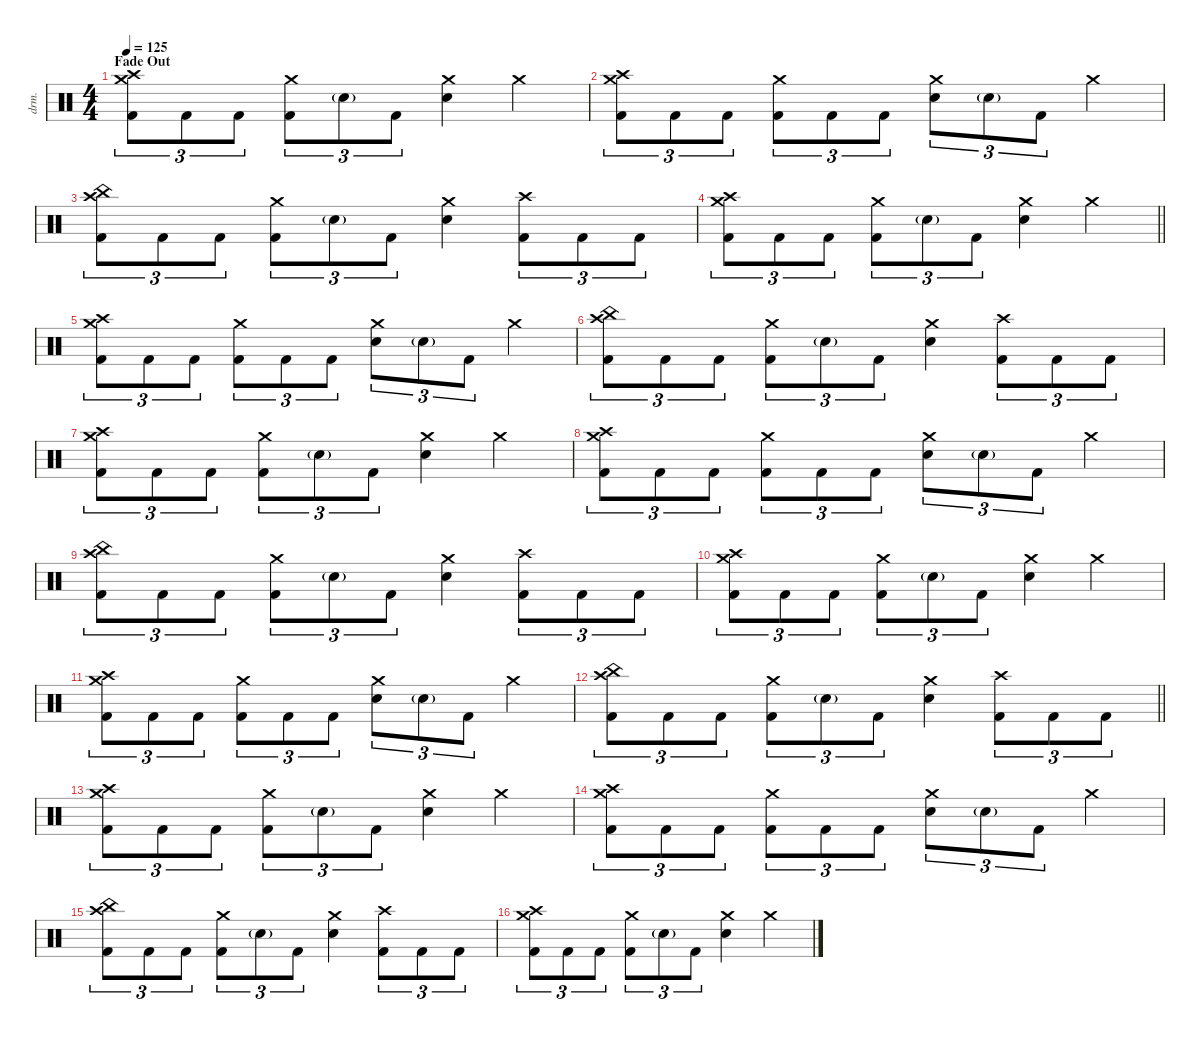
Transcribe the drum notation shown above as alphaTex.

\defaultSystemsLayout 4
\hideDynamics
\bracketExtendMode nobrackets
\track ("DRUMS (Thomas Haake)" "drm.") {instrument percussion}
\staff {score}
\articulation defaults
\ts (4 4)
\section ("" "Fade Out")
\tempo 125
\clef neutral
\ks c
("Crash medium (hit)" "Crash high (hit)" "Kick (hit) 2").8{tu (3 2) dy mf} "Kick (hit) 2".8{tu (3 2) dy f} "Kick (hit) 2".8{tu (3 2)} ("Crash medium (hit)" "Kick (hit) 2").8{tu (3 2) dy mf} "Snare (hit) 2"{g}.8{tu (3 2) dy p} "Kick (hit) 2".8{tu (3 2) dy f} ("Crash medium (hit)" "Snare (hit) 2").4{dy mf} "Crash medium (hit)".4 |
("Crash medium (hit)" "Crash high (hit)" "Kick (hit) 2").8{tu (3 2)} "Kick (hit) 2".8{tu (3 2) dy f} "Kick (hit) 2".8{tu (3 2)} ("Crash medium (hit)" "Kick (hit) 2").8{tu (3 2) dy mf} "Kick (hit) 2".8{tu (3 2) dy f} "Kick (hit) 2".8{tu (3 2)} ("Crash medium (hit)" "Snare (hit) 2").8{tu (3 2) dy mf} "Snare (hit) 2"{g}.8{tu (3 2) dy mp} "Kick (hit) 2".8{tu (3 2) dy f} "Crash medium (hit)".4{dy mf} |
("China (hit)" "Crash high (hit)" "Kick (hit) 2").8{tu (3 2)} "Kick (hit) 2".8{tu (3 2) dy f} "Kick (hit) 2".8{tu (3 2)} ("Crash medium (hit)" "Kick (hit) 2").8{tu (3 2) dy mf} "Snare (hit) 2"{g}.8{tu (3 2) dy p} "Kick (hit) 2".8{tu (3 2) dy f} ("Crash medium (hit)" "Snare (hit) 2").4{dy mf} ("Crash high (hit)" "Kick (hit) 2").8{tu (3 2) dy f} "Kick (hit) 2".8{tu (3 2)} "Kick (hit) 2".8{tu (3 2)} |
\barLineRight lightlight
("Crash medium (hit)" "Crash high (hit)" "Kick (hit) 2").8{tu (3 2) dy mf} "Kick (hit) 2".8{tu (3 2) dy f} "Kick (hit) 2".8{tu (3 2)} ("Crash medium (hit)" "Kick (hit) 2").8{tu (3 2) dy mf} "Snare (hit) 2"{g}.8{tu (3 2) dy p} "Kick (hit) 2".8{tu (3 2) dy f} ("Crash medium (hit)" "Snare (hit) 2").4{dy mf} "Crash medium (hit)".4 |
("Crash medium (hit)" "Crash high (hit)" "Kick (hit) 2").8{tu (3 2)} "Kick (hit) 2".8{tu (3 2) dy f} "Kick (hit) 2".8{tu (3 2)} ("Crash medium (hit)" "Kick (hit) 2").8{tu (3 2) dy mf} "Kick (hit) 2".8{tu (3 2) dy f} "Kick (hit) 2".8{tu (3 2)} ("Crash medium (hit)" "Snare (hit) 2").8{tu (3 2) dy mf} "Snare (hit) 2"{g}.8{tu (3 2) dy mp} "Kick (hit) 2".8{tu (3 2) dy f} "Crash medium (hit)".4{dy mf} |
("China (hit)" "Crash high (hit)" "Kick (hit) 2").8{tu (3 2)} "Kick (hit) 2".8{tu (3 2) dy f} "Kick (hit) 2".8{tu (3 2)} ("Crash medium (hit)" "Kick (hit) 2").8{tu (3 2) dy mf} "Snare (hit) 2"{g}.8{tu (3 2) dy p} "Kick (hit) 2".8{tu (3 2) dy f} ("Crash medium (hit)" "Snare (hit) 2").4{dy mf} ("Crash high (hit)" "Kick (hit) 2").8{tu (3 2) dy f} "Kick (hit) 2".8{tu (3 2)} "Kick (hit) 2".8{tu (3 2)} |
("Crash medium (hit)" "Crash high (hit)" "Kick (hit) 2").8{tu (3 2) dy mf} "Kick (hit) 2".8{tu (3 2) dy f} "Kick (hit) 2".8{tu (3 2)} ("Crash medium (hit)" "Kick (hit) 2").8{tu (3 2) dy mf} "Snare (hit) 2"{g}.8{tu (3 2) dy p} "Kick (hit) 2".8{tu (3 2) dy f} ("Crash medium (hit)" "Snare (hit) 2").4{dy mf} "Crash medium (hit)".4 |
("Crash medium (hit)" "Crash high (hit)" "Kick (hit) 2").8{tu (3 2)} "Kick (hit) 2".8{tu (3 2) dy f} "Kick (hit) 2".8{tu (3 2)} ("Crash medium (hit)" "Kick (hit) 2").8{tu (3 2) dy mf} "Kick (hit) 2".8{tu (3 2) dy f} "Kick (hit) 2".8{tu (3 2)} ("Crash medium (hit)" "Snare (hit) 2").8{tu (3 2) dy mf} "Snare (hit) 2"{g}.8{tu (3 2) dy mp} "Kick (hit) 2".8{tu (3 2) dy f} "Crash medium (hit)".4{dy mf} |
("China (hit)" "Crash high (hit)" "Kick (hit) 2").8{tu (3 2)} "Kick (hit) 2".8{tu (3 2) dy f} "Kick (hit) 2".8{tu (3 2)} ("Crash medium (hit)" "Kick (hit) 2").8{tu (3 2) dy mf} "Snare (hit) 2"{g}.8{tu (3 2) dy p} "Kick (hit) 2".8{tu (3 2) dy f} ("Crash medium (hit)" "Snare (hit) 2").4{dy mf} ("Crash high (hit)" "Kick (hit) 2").8{tu (3 2) dy f} "Kick (hit) 2".8{tu (3 2)} "Kick (hit) 2".8{tu (3 2)} |
("Crash medium (hit)" "Crash high (hit)" "Kick (hit) 2").8{tu (3 2) dy mf} "Kick (hit) 2".8{tu (3 2) dy f} "Kick (hit) 2".8{tu (3 2)} ("Crash medium (hit)" "Kick (hit) 2").8{tu (3 2) dy mf} "Snare (hit) 2"{g}.8{tu (3 2) dy p} "Kick (hit) 2".8{tu (3 2) dy f} ("Crash medium (hit)" "Snare (hit) 2").4{dy mf} "Crash medium (hit)".4 |
("Crash medium (hit)" "Crash high (hit)" "Kick (hit) 2").8{tu (3 2)} "Kick (hit) 2".8{tu (3 2) dy f} "Kick (hit) 2".8{tu (3 2)} ("Crash medium (hit)" "Kick (hit) 2").8{tu (3 2) dy mf} "Kick (hit) 2".8{tu (3 2) dy f} "Kick (hit) 2".8{tu (3 2)} ("Crash medium (hit)" "Snare (hit) 2").8{tu (3 2) dy mf} "Snare (hit) 2"{g}.8{tu (3 2) dy mp} "Kick (hit) 2".8{tu (3 2) dy f} "Crash medium (hit)".4{dy mf} |
\barLineRight lightlight
("China (hit)" "Crash high (hit)" "Kick (hit) 2").8{tu (3 2)} "Kick (hit) 2".8{tu (3 2) dy f} "Kick (hit) 2".8{tu (3 2)} ("Crash medium (hit)" "Kick (hit) 2").8{tu (3 2) dy mf} "Snare (hit) 2"{g}.8{tu (3 2) dy p} "Kick (hit) 2".8{tu (3 2) dy f} ("Crash medium (hit)" "Snare (hit) 2").4{dy mf} ("Crash high (hit)" "Kick (hit) 2").8{tu (3 2) dy f} "Kick (hit) 2".8{tu (3 2)} "Kick (hit) 2".8{tu (3 2)} |
("Crash medium (hit)" "Crash high (hit)" "Kick (hit) 2").8{tu (3 2) dy mf} "Kick (hit) 2".8{tu (3 2) dy f} "Kick (hit) 2".8{tu (3 2)} ("Crash medium (hit)" "Kick (hit) 2").8{tu (3 2) dy mf} "Snare (hit) 2"{g}.8{tu (3 2) dy p} "Kick (hit) 2".8{tu (3 2) dy f} ("Crash medium (hit)" "Snare (hit) 2").4{dy mf} "Crash medium (hit)".4 |
("Crash medium (hit)" "Crash high (hit)" "Kick (hit) 2").8{tu (3 2)} "Kick (hit) 2".8{tu (3 2) dy f} "Kick (hit) 2".8{tu (3 2)} ("Crash medium (hit)" "Kick (hit) 2").8{tu (3 2) dy mf} "Kick (hit) 2".8{tu (3 2) dy f} "Kick (hit) 2".8{tu (3 2)} ("Crash medium (hit)" "Snare (hit) 2").8{tu (3 2) dy mf} "Snare (hit) 2"{g}.8{tu (3 2) dy mp} "Kick (hit) 2".8{tu (3 2) dy f} "Crash medium (hit)".4{dy mf} |
("China (hit)" "Crash high (hit)" "Kick (hit) 2").8{tu (3 2)} "Kick (hit) 2".8{tu (3 2) dy f} "Kick (hit) 2".8{tu (3 2)} ("Crash medium (hit)" "Kick (hit) 2").8{tu (3 2) dy mf} "Snare (hit) 2"{g}.8{tu (3 2) dy p} "Kick (hit) 2".8{tu (3 2) dy f} ("Crash medium (hit)" "Snare (hit) 2").4{dy mf} ("Crash high (hit)" "Kick (hit) 2").8{tu (3 2) dy f} "Kick (hit) 2".8{tu (3 2)} "Kick (hit) 2".8{tu (3 2)} |
("Crash medium (hit)" "Crash high (hit)" "Kick (hit) 2").8{tu (3 2) dy mf} "Kick (hit) 2".8{tu (3 2) dy f} "Kick (hit) 2".8{tu (3 2)} ("Crash medium (hit)" "Kick (hit) 2").8{tu (3 2) dy mf} "Snare (hit) 2"{g}.8{tu (3 2) dy p} "Kick (hit) 2".8{tu (3 2) dy f} ("Crash medium (hit)" "Snare (hit) 2").4{dy mf} "Crash medium (hit)".4
